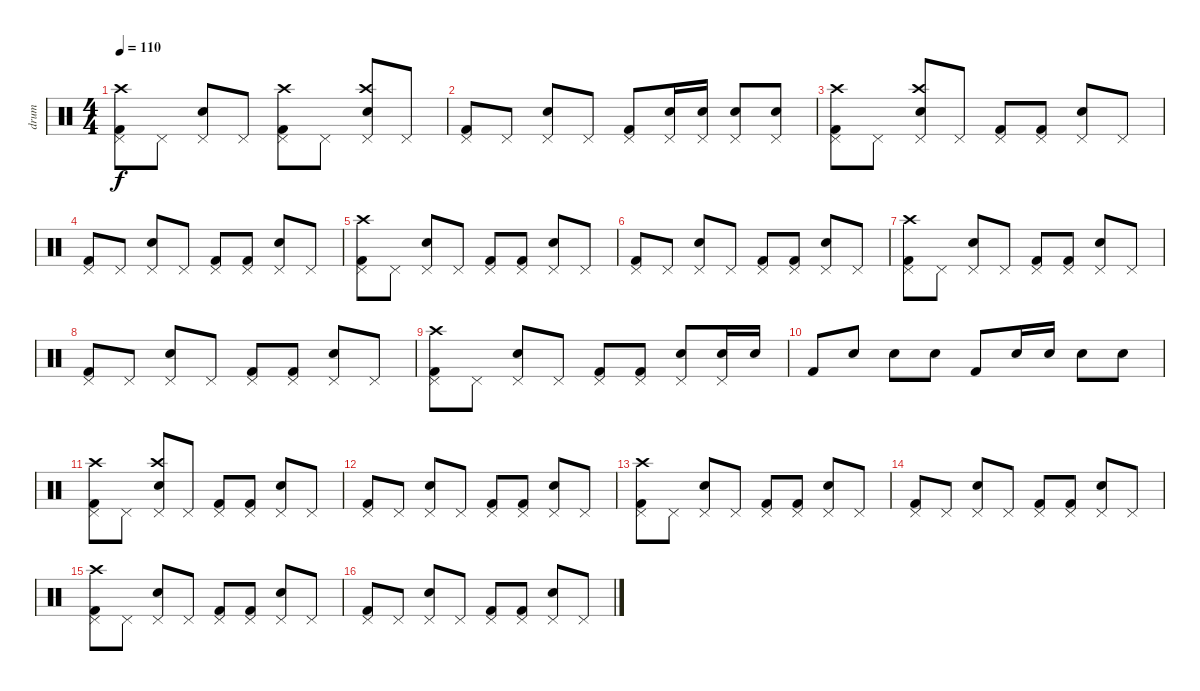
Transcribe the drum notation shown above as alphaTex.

\track ("drum" "drum") {instrument percussion}
\staff {score}
\articulation defaults
\ts (4 4)
\tempo 110
\clef neutral
\ks c
("Pedal Hi-Hat (hit)" "Kick (hit) 2" "Crash high (hit)").8{dy f} "Pedal Hi-Hat (hit)".8 ("Pedal Hi-Hat (hit)" "Electric Snare (hit)").8 "Pedal Hi-Hat (hit)".8 ("Pedal Hi-Hat (hit)" "Kick (hit) 2" "Crash high (hit)").8 "Pedal Hi-Hat (hit)".8 ("Pedal Hi-Hat (hit)" "Electric Snare (hit)" "Crash high (hit)").8 "Pedal Hi-Hat (hit)".8 |
("Pedal Hi-Hat (hit)" "Kick (hit) 2").8 "Pedal Hi-Hat (hit)".8 ("Pedal Hi-Hat (hit)" "Electric Snare (hit)").8 "Pedal Hi-Hat (hit)".8 ("Pedal Hi-Hat (hit)" "Kick (hit) 2").8 ("Pedal Hi-Hat (hit)" "Electric Snare (hit)").16 ("Pedal Hi-Hat (hit)" "Electric Snare (hit)").16 ("Pedal Hi-Hat (hit)" "Electric Snare (hit)").8 ("Pedal Hi-Hat (hit)" "Electric Snare (hit)").8 |
("Pedal Hi-Hat (hit)" "Kick (hit) 2" "Crash high (hit)").8 "Pedal Hi-Hat (hit)".8 ("Pedal Hi-Hat (hit)" "Electric Snare (hit)" "Crash high (hit)").8 "Pedal Hi-Hat (hit)".8 ("Pedal Hi-Hat (hit)" "Kick (hit) 2").8 ("Pedal Hi-Hat (hit)" "Kick (hit) 2").8 ("Pedal Hi-Hat (hit)" "Electric Snare (hit)").8 "Pedal Hi-Hat (hit)".8 |
("Pedal Hi-Hat (hit)" "Kick (hit) 2").8 "Pedal Hi-Hat (hit)".8 ("Pedal Hi-Hat (hit)" "Electric Snare (hit)").8 "Pedal Hi-Hat (hit)".8 ("Pedal Hi-Hat (hit)" "Kick (hit) 2").8 ("Pedal Hi-Hat (hit)" "Kick (hit) 2").8 ("Pedal Hi-Hat (hit)" "Electric Snare (hit)").8 "Pedal Hi-Hat (hit)".8 |
("Pedal Hi-Hat (hit)" "Kick (hit) 2" "Crash high (hit)").8 "Pedal Hi-Hat (hit)".8 ("Pedal Hi-Hat (hit)" "Electric Snare (hit)").8 "Pedal Hi-Hat (hit)".8 ("Pedal Hi-Hat (hit)" "Kick (hit) 2").8 ("Pedal Hi-Hat (hit)" "Kick (hit) 2").8 ("Pedal Hi-Hat (hit)" "Electric Snare (hit)").8 "Pedal Hi-Hat (hit)".8 |
("Pedal Hi-Hat (hit)" "Kick (hit) 2").8 "Pedal Hi-Hat (hit)".8 ("Pedal Hi-Hat (hit)" "Electric Snare (hit)").8 "Pedal Hi-Hat (hit)".8 ("Pedal Hi-Hat (hit)" "Kick (hit) 2").8 ("Pedal Hi-Hat (hit)" "Kick (hit) 2").8 ("Pedal Hi-Hat (hit)" "Electric Snare (hit)").8 "Pedal Hi-Hat (hit)".8 |
("Pedal Hi-Hat (hit)" "Kick (hit) 2" "Crash high (hit)").8 "Pedal Hi-Hat (hit)".8 ("Pedal Hi-Hat (hit)" "Electric Snare (hit)").8 "Pedal Hi-Hat (hit)".8 ("Pedal Hi-Hat (hit)" "Kick (hit) 2").8 ("Pedal Hi-Hat (hit)" "Kick (hit) 2").8 ("Pedal Hi-Hat (hit)" "Electric Snare (hit)").8 "Pedal Hi-Hat (hit)".8 |
("Pedal Hi-Hat (hit)" "Kick (hit) 2").8 "Pedal Hi-Hat (hit)".8 ("Pedal Hi-Hat (hit)" "Electric Snare (hit)").8 "Pedal Hi-Hat (hit)".8 ("Pedal Hi-Hat (hit)" "Kick (hit) 2").8 ("Pedal Hi-Hat (hit)" "Kick (hit) 2").8 ("Pedal Hi-Hat (hit)" "Electric Snare (hit)").8 "Pedal Hi-Hat (hit)".8 |
("Pedal Hi-Hat (hit)" "Kick (hit) 2" "Crash high (hit)").8 "Pedal Hi-Hat (hit)".8 ("Pedal Hi-Hat (hit)" "Electric Snare (hit)").8 "Pedal Hi-Hat (hit)".8 ("Pedal Hi-Hat (hit)" "Kick (hit) 2").8 ("Pedal Hi-Hat (hit)" "Kick (hit) 2").8 ("Pedal Hi-Hat (hit)" "Electric Snare (hit)").8 ("Pedal Hi-Hat (hit)" "Electric Snare (hit)").16 "Electric Snare (hit)".16 |
"Kick (hit) 2".8 "Electric Snare (hit)".8 "Electric Snare (hit)".8 "Electric Snare (hit)".8 "Kick (hit) 2".8 "Electric Snare (hit)".16 "Electric Snare (hit)".16 "Electric Snare (hit)".8 "Electric Snare (hit)".8 |
("Pedal Hi-Hat (hit)" "Kick (hit) 2" "Crash high (hit)").8 "Pedal Hi-Hat (hit)".8 ("Pedal Hi-Hat (hit)" "Electric Snare (hit)" "Crash high (hit)").8 "Pedal Hi-Hat (hit)".8 ("Pedal Hi-Hat (hit)" "Kick (hit) 2").8 ("Pedal Hi-Hat (hit)" "Kick (hit) 2").8 ("Pedal Hi-Hat (hit)" "Electric Snare (hit)").8 "Pedal Hi-Hat (hit)".8 |
("Pedal Hi-Hat (hit)" "Kick (hit) 2").8 "Pedal Hi-Hat (hit)".8 ("Pedal Hi-Hat (hit)" "Electric Snare (hit)").8 "Pedal Hi-Hat (hit)".8 ("Pedal Hi-Hat (hit)" "Kick (hit) 2").8 ("Pedal Hi-Hat (hit)" "Kick (hit) 2").8 ("Pedal Hi-Hat (hit)" "Electric Snare (hit)").8 "Pedal Hi-Hat (hit)".8 |
("Pedal Hi-Hat (hit)" "Kick (hit) 2" "Crash high (hit)").8 "Pedal Hi-Hat (hit)".8 ("Pedal Hi-Hat (hit)" "Electric Snare (hit)").8 "Pedal Hi-Hat (hit)".8 ("Pedal Hi-Hat (hit)" "Kick (hit) 2").8 ("Pedal Hi-Hat (hit)" "Kick (hit) 2").8 ("Pedal Hi-Hat (hit)" "Electric Snare (hit)").8 "Pedal Hi-Hat (hit)".8 |
("Pedal Hi-Hat (hit)" "Kick (hit) 2").8 "Pedal Hi-Hat (hit)".8 ("Pedal Hi-Hat (hit)" "Electric Snare (hit)").8 "Pedal Hi-Hat (hit)".8 ("Pedal Hi-Hat (hit)" "Kick (hit) 2").8 ("Pedal Hi-Hat (hit)" "Kick (hit) 2").8 ("Pedal Hi-Hat (hit)" "Electric Snare (hit)").8 "Pedal Hi-Hat (hit)".8 |
("Pedal Hi-Hat (hit)" "Kick (hit) 2" "Crash high (hit)").8 "Pedal Hi-Hat (hit)".8 ("Pedal Hi-Hat (hit)" "Electric Snare (hit)").8 "Pedal Hi-Hat (hit)".8 ("Pedal Hi-Hat (hit)" "Kick (hit) 2").8 ("Pedal Hi-Hat (hit)" "Kick (hit) 2").8 ("Pedal Hi-Hat (hit)" "Electric Snare (hit)").8 "Pedal Hi-Hat (hit)".8 |
("Pedal Hi-Hat (hit)" "Kick (hit) 2").8 "Pedal Hi-Hat (hit)".8 ("Pedal Hi-Hat (hit)" "Electric Snare (hit)").8 "Pedal Hi-Hat (hit)".8 ("Pedal Hi-Hat (hit)" "Kick (hit) 2").8 ("Pedal Hi-Hat (hit)" "Kick (hit) 2").8 ("Pedal Hi-Hat (hit)" "Electric Snare (hit)").8 "Pedal Hi-Hat (hit)".8
